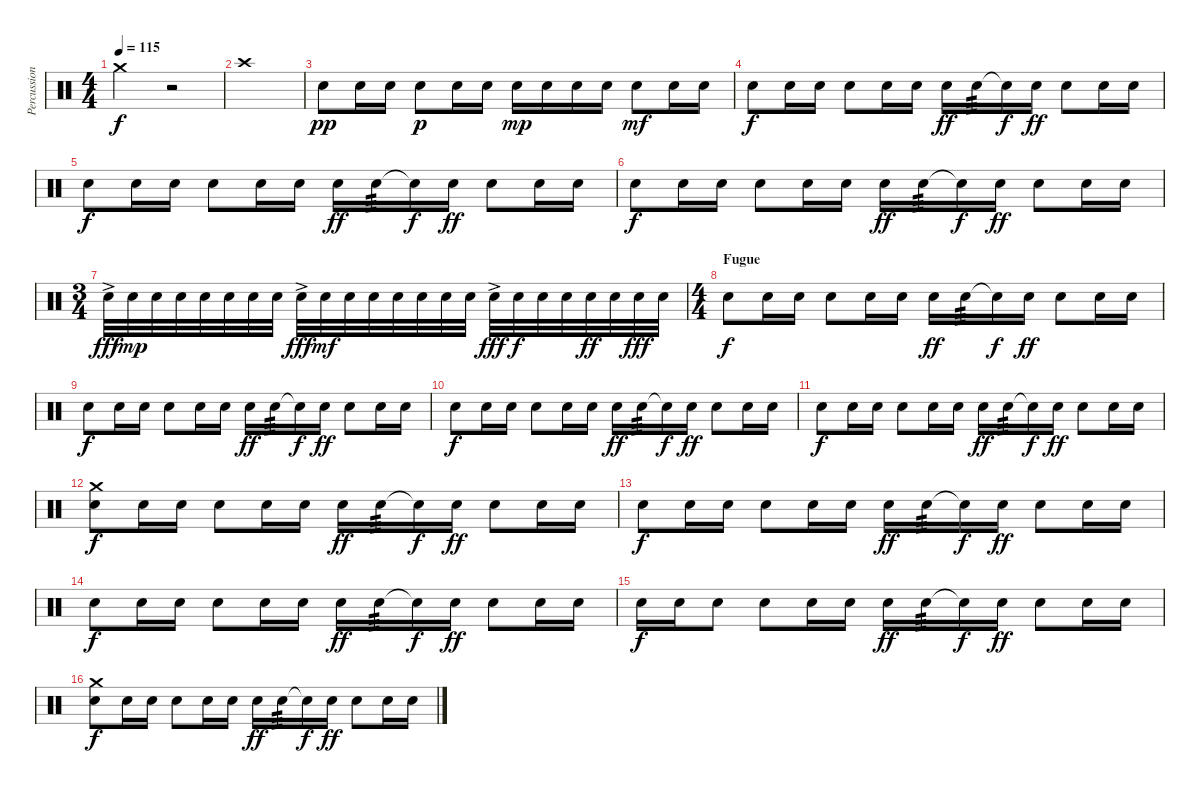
\track ("Percussions" "Percussion") {instrument percussion}
\staff {score}
\articulation defaults
\ts (4 4)
\tempo 115
\clef neutral
\ks c "Crash medium (hit)".2{dy f}
r.2 |
"Crash high (hit)".1 |
"Electric Snare (hit)".8{dy pp} "Electric Snare (hit)".16 "Electric Snare (hit)".16 "Electric Snare (hit)".8{dy p} "Electric Snare (hit)".16 "Electric Snare (hit)".16 "Electric Snare (hit)".16{dy mp} "Electric Snare (hit)".16 "Electric Snare (hit)".16 "Electric Snare (hit)".16 "Electric Snare (hit)".8{dy mf} "Electric Snare (hit)".16 "Electric Snare (hit)".16 |
"Electric Snare (hit)".8{dy f} "Electric Snare (hit)".16 "Electric Snare (hit)".16 "Electric Snare (hit)".8 "Electric Snare (hit)".16 "Electric Snare (hit)".16 "Electric Snare (hit)".16{dy ff} "Electric Snare (hit)".16{tp 3} "Electric Snare (hit)"{t}.16{dy f} "Electric Snare (hit)".16{dy ff} "Electric Snare (hit)".8 "Electric Snare (hit)".16 "Electric Snare (hit)".16 |
"Electric Snare (hit)".8{dy f} "Electric Snare (hit)".16 "Electric Snare (hit)".16 "Electric Snare (hit)".8 "Electric Snare (hit)".16 "Electric Snare (hit)".16 "Electric Snare (hit)".16{dy ff} "Electric Snare (hit)".16{tp 3} "Electric Snare (hit)"{t}.16{dy f} "Electric Snare (hit)".16{dy ff} "Electric Snare (hit)".8 "Electric Snare (hit)".16 "Electric Snare (hit)".16 |
"Electric Snare (hit)".8{dy f} "Electric Snare (hit)".16 "Electric Snare (hit)".16 "Electric Snare (hit)".8 "Electric Snare (hit)".16 "Electric Snare (hit)".16 "Electric Snare (hit)".16{dy ff} "Electric Snare (hit)".16{tp 3} "Electric Snare (hit)"{t}.16{dy f} "Electric Snare (hit)".16{dy ff} "Electric Snare (hit)".8 "Electric Snare (hit)".16 "Electric Snare (hit)".16 |
\ts (3 4)
"Electric Snare (hit)"{ac}.32{dy fff} "Electric Snare (hit)".32{dy mp} "Electric Snare (hit)".32 "Electric Snare (hit)".32 "Electric Snare (hit)".32 "Electric Snare (hit)".32 "Electric Snare (hit)".32 "Electric Snare (hit)".32 "Electric Snare (hit)"{ac}.32{dy fff} "Electric Snare (hit)".32{dy mf} "Electric Snare (hit)".32 "Electric Snare (hit)".32 "Electric Snare (hit)".32 "Electric Snare (hit)".32 "Electric Snare (hit)".32 "Electric Snare (hit)".32 "Electric Snare (hit)"{ac}.32{dy fff} "Electric Snare (hit)".32{dy f} "Electric Snare (hit)".32 "Electric Snare (hit)".32 "Electric Snare (hit)".32{dy ff} "Electric Snare (hit)".32 "Electric Snare (hit)".32{dy fff} "Electric Snare (hit)".32 |
\ts (4 4)
\section ("" "Fugue")
"Electric Snare (hit)".8{dy f} "Electric Snare (hit)".16 "Electric Snare (hit)".16 "Electric Snare (hit)".8 "Electric Snare (hit)".16 "Electric Snare (hit)".16 "Electric Snare (hit)".16{dy ff} "Electric Snare (hit)".16{tp 3} "Electric Snare (hit)"{t}.16{dy f} "Electric Snare (hit)".16{dy ff} "Electric Snare (hit)".8 "Electric Snare (hit)".16 "Electric Snare (hit)".16 |
"Electric Snare (hit)".8{dy f} "Electric Snare (hit)".16 "Electric Snare (hit)".16 "Electric Snare (hit)".8 "Electric Snare (hit)".16 "Electric Snare (hit)".16 "Electric Snare (hit)".16{dy ff} "Electric Snare (hit)".16{tp 3} "Electric Snare (hit)"{t}.16{dy f} "Electric Snare (hit)".16{dy ff} "Electric Snare (hit)".8 "Electric Snare (hit)".16 "Electric Snare (hit)".16 |
"Electric Snare (hit)".8{dy f} "Electric Snare (hit)".16 "Electric Snare (hit)".16 "Electric Snare (hit)".8 "Electric Snare (hit)".16 "Electric Snare (hit)".16 "Electric Snare (hit)".16{dy ff} "Electric Snare (hit)".16{tp 3} "Electric Snare (hit)"{t}.16{dy f} "Electric Snare (hit)".16{dy ff} "Electric Snare (hit)".8 "Electric Snare (hit)".16 "Electric Snare (hit)".16 |
"Electric Snare (hit)".8{dy f} "Electric Snare (hit)".16 "Electric Snare (hit)".16 "Electric Snare (hit)".8 "Electric Snare (hit)".16 "Electric Snare (hit)".16 "Electric Snare (hit)".16{dy ff} "Electric Snare (hit)".16{tp 3} "Electric Snare (hit)"{t}.16{dy f} "Electric Snare (hit)".16{dy ff} "Electric Snare (hit)".8 "Electric Snare (hit)".16 "Electric Snare (hit)".16 |
("Crash medium (hit)" "Electric Snare (hit)").8{dy f} "Electric Snare (hit)".16 "Electric Snare (hit)".16 "Electric Snare (hit)".8 "Electric Snare (hit)".16 "Electric Snare (hit)".16 "Electric Snare (hit)".16{dy ff} "Electric Snare (hit)".16{tp 3} "Electric Snare (hit)"{t}.16{dy f} "Electric Snare (hit)".16{dy ff} "Electric Snare (hit)".8 "Electric Snare (hit)".16 "Electric Snare (hit)".16 |
"Electric Snare (hit)".8{dy f} "Electric Snare (hit)".16 "Electric Snare (hit)".16 "Electric Snare (hit)".8 "Electric Snare (hit)".16 "Electric Snare (hit)".16 "Electric Snare (hit)".16{dy ff} "Electric Snare (hit)".16{tp 3} "Electric Snare (hit)"{t}.16{dy f} "Electric Snare (hit)".16{dy ff} "Electric Snare (hit)".8 "Electric Snare (hit)".16 "Electric Snare (hit)".16 |
"Electric Snare (hit)".8{dy f} "Electric Snare (hit)".16 "Electric Snare (hit)".16 "Electric Snare (hit)".8 "Electric Snare (hit)".16 "Electric Snare (hit)".16 "Electric Snare (hit)".16{dy ff} "Electric Snare (hit)".16{tp 3} "Electric Snare (hit)"{t}.16{dy f} "Electric Snare (hit)".16{dy ff} "Electric Snare (hit)".8 "Electric Snare (hit)".16 "Electric Snare (hit)".16 |
"Electric Snare (hit)".16{dy f} "Electric Snare (hit)".16 "Electric Snare (hit)".8 "Electric Snare (hit)".8 "Electric Snare (hit)".16 "Electric Snare (hit)".16 "Electric Snare (hit)".16{dy ff} "Electric Snare (hit)".16{tp 3} "Electric Snare (hit)"{t}.16{dy f} "Electric Snare (hit)".16{dy ff} "Electric Snare (hit)".8 "Electric Snare (hit)".16 "Electric Snare (hit)".16 |
("Crash medium (hit)" "Electric Snare (hit)").8{dy f} "Electric Snare (hit)".16 "Electric Snare (hit)".16 "Electric Snare (hit)".8 "Electric Snare (hit)".16 "Electric Snare (hit)".16 "Electric Snare (hit)".16{dy ff} "Electric Snare (hit)".16{tp 3} "Electric Snare (hit)"{t}.16{dy f} "Electric Snare (hit)".16{dy ff} "Electric Snare (hit)".8 "Electric Snare (hit)".16 "Electric Snare (hit)".16
